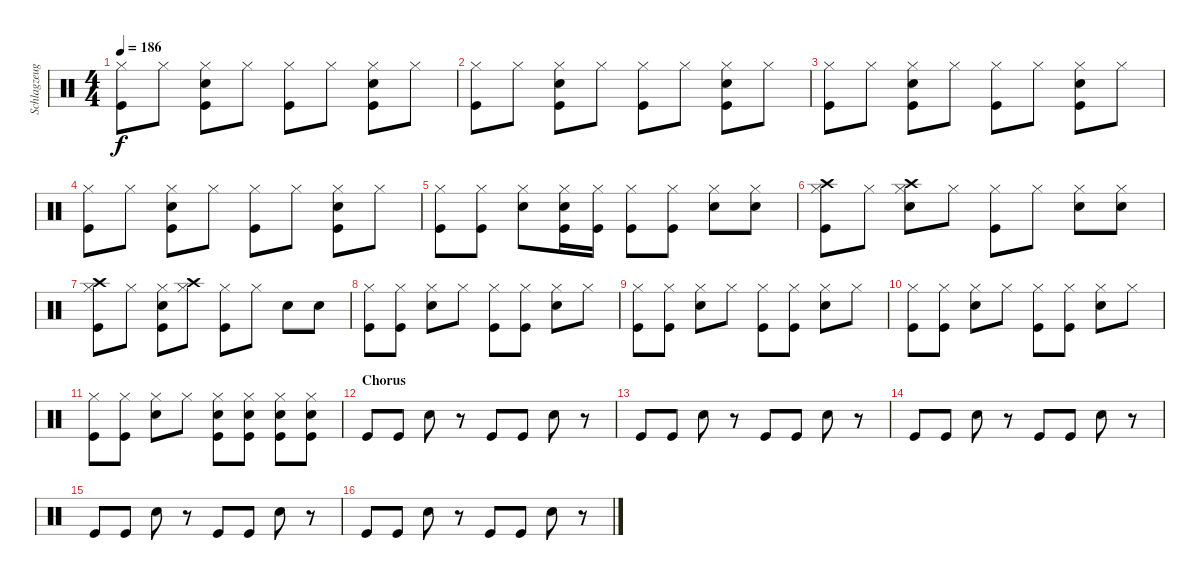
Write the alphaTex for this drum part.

\track ("Schlagzeug - Bela B." "Schlagzeug") {instrument percussion}
\staff {score}
\articulation defaults
\ts (4 4)
\tempo 186
\clef neutral
\ks c
("Hi-Hat (closed)" "Kick (hit)").8{dy f} "Hi-Hat (closed)".8 ("Hi-Hat (closed)" "Electric Snare (hit)" "Kick (hit)").8 "Hi-Hat (closed)".8 ("Kick (hit)" "Hi-Hat (closed)").8 "Hi-Hat (closed)".8 ("Electric Snare (hit)" "Hi-Hat (closed)" "Kick (hit)").8 "Hi-Hat (closed)".8 |
("Hi-Hat (closed)" "Kick (hit)").8 "Hi-Hat (closed)".8 ("Hi-Hat (closed)" "Electric Snare (hit)" "Kick (hit)").8 "Hi-Hat (closed)".8 ("Kick (hit)" "Hi-Hat (closed)").8 "Hi-Hat (closed)".8 ("Hi-Hat (closed)" "Electric Snare (hit)" "Kick (hit)").8 "Hi-Hat (closed)".8 |
("Kick (hit)" "Hi-Hat (closed)").8 "Hi-Hat (closed)".8 ("Electric Snare (hit)" "Hi-Hat (closed)" "Kick (hit)").8 "Hi-Hat (closed)".8 ("Hi-Hat (closed)" "Kick (hit)").8 "Hi-Hat (closed)".8 ("Electric Snare (hit)" "Hi-Hat (closed)" "Kick (hit)").8 "Hi-Hat (closed)".8 |
("Kick (hit)" "Hi-Hat (closed)").8 "Hi-Hat (closed)".8 ("Hi-Hat (closed)" "Electric Snare (hit)" "Kick (hit)").8 "Hi-Hat (closed)".8 ("Kick (hit)" "Hi-Hat (closed)").8 "Hi-Hat (closed)".8 ("Hi-Hat (closed)" "Electric Snare (hit)" "Kick (hit)").8 "Hi-Hat (closed)".8 |
("Hi-Hat (closed)" "Kick (hit)").8 ("Kick (hit)" "Hi-Hat (closed)").8 ("Electric Snare (hit)" "Hi-Hat (closed)").8 ("Electric Snare (hit)" "Kick (hit)" "Hi-Hat (closed)").16 ("Kick (hit)" "Hi-Hat (closed)").16 ("Kick (hit)" "Hi-Hat (closed)").8 ("Hi-Hat (closed)" "Kick (hit)").8 ("Hi-Hat (closed)" "Electric Snare (hit)").8 ("Electric Snare (hit)" "Hi-Hat (closed)").8 |
("Hi-Hat (closed)" "Crash high (hit)" "Kick (hit)").8 "Hi-Hat (closed)".8 ("Hi-Hat (closed)" "Crash high (hit)" "Electric Snare (hit)").8 "Hi-Hat (closed)".8 ("Hi-Hat (closed)" "Kick (hit)").8 "Hi-Hat (closed)".8 ("Hi-Hat (closed)" "Electric Snare (hit)").8 ("Hi-Hat (closed)" "Electric Snare (hit)").8 |
("Hi-Hat (closed)" "Crash high (hit)" "Kick (hit)").8 "Hi-Hat (closed)".8 ("Hi-Hat (closed)" "Kick (hit)" "Electric Snare (hit)").8 ("Crash high (hit)" "Hi-Hat (closed)").8 ("Kick (hit)" "Hi-Hat (closed)").8 "Hi-Hat (closed)".8 "Electric Snare (hit)".8 "Electric Snare (hit)".8 |
("Kick (hit)" "Hi-Hat (closed)").8 ("Hi-Hat (closed)" "Kick (hit)").8 ("Electric Snare (hit)" "Hi-Hat (closed)").8 "Hi-Hat (closed)".8 ("Hi-Hat (closed)" "Kick (hit)").8 ("Kick (hit)" "Hi-Hat (closed)").8 ("Electric Snare (hit)" "Hi-Hat (closed)").8 "Hi-Hat (closed)".8 |
("Hi-Hat (closed)" "Kick (hit)").8 ("Hi-Hat (closed)" "Kick (hit)").8 ("Hi-Hat (closed)" "Electric Snare (hit)").8 "Hi-Hat (closed)".8 ("Hi-Hat (closed)" "Kick (hit)").8 ("Kick (hit)" "Hi-Hat (closed)").8 ("Hi-Hat (closed)" "Electric Snare (hit)").8 "Hi-Hat (closed)".8 |
("Hi-Hat (closed)" "Kick (hit)").8 ("Kick (hit)" "Hi-Hat (closed)").8 ("Electric Snare (hit)" "Hi-Hat (closed)").8 "Hi-Hat (closed)".8 ("Kick (hit)" "Hi-Hat (closed)").8 ("Kick (hit)" "Hi-Hat (closed)").8 ("Electric Snare (hit)" "Hi-Hat (closed)").8 "Hi-Hat (closed)".8 |
("Hi-Hat (closed)" "Kick (hit)").8 ("Hi-Hat (closed)" "Kick (hit)").8 ("Hi-Hat (closed)" "Electric Snare (hit)").8 "Hi-Hat (closed)".8 ("Kick (hit)" "Electric Snare (hit)" "Hi-Hat (closed)").8 ("Electric Snare (hit)" "Kick (hit)" "Hi-Hat (closed)").8 ("Electric Snare (hit)" "Kick (hit)" "Hi-Hat (closed)").8 ("Electric Snare (hit)" "Kick (hit)" "Hi-Hat (closed)").8 |
\section ("" "Chorus")
"Kick (hit)".8 "Kick (hit)".8 "Snare (hit) 2".8 r.8 "Kick (hit)".8 "Kick (hit)".8 "Snare (hit) 2".8 r.8 |
"Kick (hit)".8 "Kick (hit)".8 "Snare (hit) 2".8 r.8 "Kick (hit)".8 "Kick (hit)".8 "Snare (hit) 2".8 r.8 |
"Kick (hit)".8 "Kick (hit)".8 "Snare (hit) 2".8 r.8 "Kick (hit)".8 "Kick (hit)".8 "Snare (hit) 2".8 r.8 |
"Kick (hit)".8 "Kick (hit)".8 "Snare (hit) 2".8 r.8 "Kick (hit)".8 "Kick (hit)".8 "Snare (hit) 2".8 r.8 |
"Kick (hit)".8 "Kick (hit)".8 "Snare (hit) 2".8 r.8 "Kick (hit)".8 "Kick (hit)".8 "Snare (hit) 2".8 r.8
